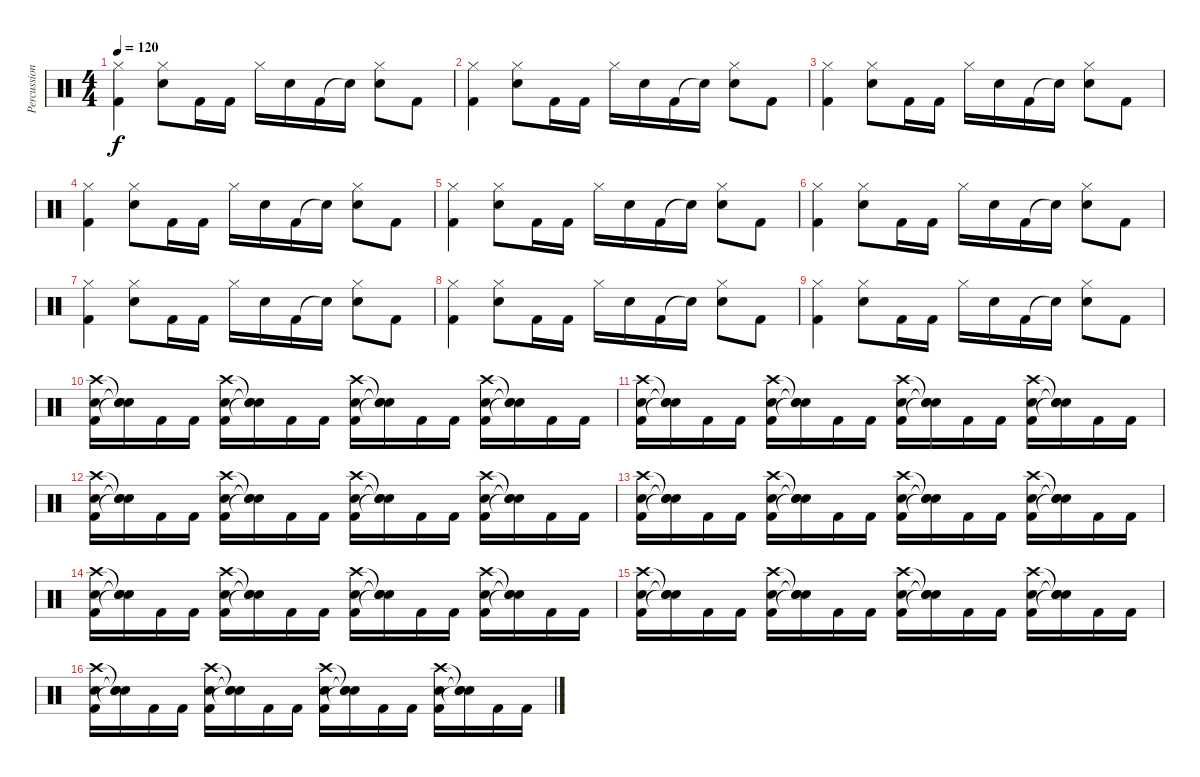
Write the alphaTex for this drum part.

\track ("Percussions" "Percussion") {instrument percussion}
\staff {score}
\articulation defaults
\ts (4 4)
\tempo 120
\clef neutral
\ks c
("Kick (hit) 2" "Hi-Hat (closed)").4{dy f} ("Electric Snare (hit)" "Hi-Hat (closed)").8 "Kick (hit) 2".16 "Kick (hit) 2".16 "Hi-Hat (closed)".16 "Electric Snare (hit)".16 "Kick (hit) 2".16 "Snare (hit)"{t}.16 ("Electric Snare (hit)" "Hi-Hat (closed)").8 "Kick (hit) 2".8 |
("Kick (hit) 2" "Hi-Hat (closed)").4 ("Electric Snare (hit)" "Hi-Hat (closed)").8 "Kick (hit) 2".16 "Kick (hit) 2".16 "Hi-Hat (closed)".16 "Electric Snare (hit)".16 "Kick (hit) 2".16 "Snare (hit)"{t}.16 ("Electric Snare (hit)" "Hi-Hat (closed)").8 "Kick (hit) 2".8 |
("Kick (hit) 2" "Hi-Hat (closed)").4 ("Electric Snare (hit)" "Hi-Hat (closed)").8 "Kick (hit) 2".16 "Kick (hit) 2".16 "Hi-Hat (closed)".16 "Electric Snare (hit)".16 "Kick (hit) 2".16 "Snare (hit)"{t}.16 ("Electric Snare (hit)" "Hi-Hat (closed)").8 "Kick (hit) 2".8 |
("Kick (hit) 2" "Hi-Hat (closed)").4 ("Electric Snare (hit)" "Hi-Hat (closed)").8 "Kick (hit) 2".16 "Kick (hit) 2".16 "Hi-Hat (closed)".16 "Electric Snare (hit)".16 "Kick (hit) 2".16 "Snare (hit)"{t}.16 ("Electric Snare (hit)" "Hi-Hat (closed)").8 "Kick (hit) 2".8 |
("Kick (hit) 2" "Hi-Hat (closed)").4 ("Electric Snare (hit)" "Hi-Hat (closed)").8 "Kick (hit) 2".16 "Kick (hit) 2".16 "Hi-Hat (closed)".16 "Electric Snare (hit)".16 "Kick (hit) 2".16 "Snare (hit)"{t}.16 ("Electric Snare (hit)" "Hi-Hat (closed)").8 "Kick (hit) 2".8 |
("Kick (hit) 2" "Hi-Hat (closed)").4 ("Electric Snare (hit)" "Hi-Hat (closed)").8 "Kick (hit) 2".16 "Kick (hit) 2".16 "Hi-Hat (closed)".16 "Electric Snare (hit)".16 "Kick (hit) 2".16 "Snare (hit)"{t}.16 ("Electric Snare (hit)" "Hi-Hat (closed)").8 "Kick (hit) 2".8 |
("Kick (hit) 2" "Hi-Hat (closed)").4 ("Electric Snare (hit)" "Hi-Hat (closed)").8 "Kick (hit) 2".16 "Kick (hit) 2".16 "Hi-Hat (closed)".16 "Electric Snare (hit)".16 "Kick (hit) 2".16 "Snare (hit)"{t}.16 ("Electric Snare (hit)" "Hi-Hat (closed)").8 "Kick (hit) 2".8 |
("Kick (hit) 2" "Hi-Hat (closed)").4 ("Electric Snare (hit)" "Hi-Hat (closed)").8 "Kick (hit) 2".16 "Kick (hit) 2".16 "Hi-Hat (closed)".16 "Electric Snare (hit)".16 "Kick (hit) 2".16 "Snare (hit)"{t}.16 ("Electric Snare (hit)" "Hi-Hat (closed)").8 "Kick (hit) 2".8 |
("Kick (hit) 2" "Hi-Hat (closed)").4 ("Electric Snare (hit)" "Hi-Hat (closed)").8 "Kick (hit) 2".16 "Kick (hit) 2".16 "Hi-Hat (closed)".16 "Electric Snare (hit)".16 "Kick (hit) 2".16 "Snare (hit)"{t}.16 ("Electric Snare (hit)" "Hi-Hat (closed)").8 "Kick (hit) 2".8 |
("Kick (hit) 2" "Electric Snare (hit)" "Crash high (hit)").16 ("Snare (hit)"{t} "Snare (hit)"{t} "Snare (hit)"{t}).16 "Kick (hit) 2".16 "Kick (hit) 2".16 ("Kick (hit) 2" "Electric Snare (hit)" "Crash high (hit)").16 ("Snare (hit)"{t} "Snare (hit)"{t} "Snare (hit)"{t}).16 "Kick (hit) 2".16 "Kick (hit) 2".16 ("Kick (hit) 2" "Electric Snare (hit)" "Crash high (hit)").16 ("Snare (hit)"{t} "Snare (hit)"{t} "Snare (hit)"{t}).16 "Kick (hit) 2".16 "Kick (hit) 2".16 ("Kick (hit) 2" "Electric Snare (hit)" "Crash high (hit)").16 ("Snare (hit)"{t} "Snare (hit)"{t} "Snare (hit)"{t}).16 "Kick (hit) 2".16 "Kick (hit) 2".16 |
("Kick (hit) 2" "Electric Snare (hit)" "Crash high (hit)").16 ("Snare (hit)"{t} "Snare (hit)"{t} "Snare (hit)"{t}).16 "Kick (hit) 2".16 "Kick (hit) 2".16 ("Kick (hit) 2" "Electric Snare (hit)" "Crash high (hit)").16 ("Snare (hit)"{t} "Snare (hit)"{t} "Snare (hit)"{t}).16 "Kick (hit) 2".16 "Kick (hit) 2".16 ("Kick (hit) 2" "Electric Snare (hit)" "Crash high (hit)").16 ("Snare (hit)"{t} "Snare (hit)"{t} "Snare (hit)"{t}).16 "Kick (hit) 2".16 "Kick (hit) 2".16 ("Kick (hit) 2" "Electric Snare (hit)" "Crash high (hit)").16 ("Snare (hit)"{t} "Snare (hit)"{t} "Snare (hit)"{t}).16 "Kick (hit) 2".16 "Kick (hit) 2".16 |
("Kick (hit) 2" "Electric Snare (hit)" "Crash high (hit)").16 ("Snare (hit)"{t} "Snare (hit)"{t} "Snare (hit)"{t}).16 "Kick (hit) 2".16 "Kick (hit) 2".16 ("Kick (hit) 2" "Electric Snare (hit)" "Crash high (hit)").16 ("Snare (hit)"{t} "Snare (hit)"{t} "Snare (hit)"{t}).16 "Kick (hit) 2".16 "Kick (hit) 2".16 ("Kick (hit) 2" "Electric Snare (hit)" "Crash high (hit)").16 ("Snare (hit)"{t} "Snare (hit)"{t} "Snare (hit)"{t}).16 "Kick (hit) 2".16 "Kick (hit) 2".16 ("Kick (hit) 2" "Electric Snare (hit)" "Crash high (hit)").16 ("Snare (hit)"{t} "Snare (hit)"{t} "Snare (hit)"{t}).16 "Kick (hit) 2".16 "Kick (hit) 2".16 |
("Kick (hit) 2" "Electric Snare (hit)" "Crash high (hit)").16 ("Snare (hit)"{t} "Snare (hit)"{t} "Snare (hit)"{t}).16 "Kick (hit) 2".16 "Kick (hit) 2".16 ("Kick (hit) 2" "Electric Snare (hit)" "Crash high (hit)").16 ("Snare (hit)"{t} "Snare (hit)"{t} "Snare (hit)"{t}).16 "Kick (hit) 2".16 "Kick (hit) 2".16 ("Kick (hit) 2" "Electric Snare (hit)" "Crash high (hit)").16 ("Snare (hit)"{t} "Snare (hit)"{t} "Snare (hit)"{t}).16 "Kick (hit) 2".16 "Kick (hit) 2".16 ("Kick (hit) 2" "Electric Snare (hit)" "Crash high (hit)").16 ("Snare (hit)"{t} "Snare (hit)"{t} "Snare (hit)"{t}).16 "Kick (hit) 2".16 "Kick (hit) 2".16 |
("Kick (hit) 2" "Electric Snare (hit)" "Crash high (hit)").16 ("Snare (hit)"{t} "Snare (hit)"{t} "Snare (hit)"{t}).16 "Kick (hit) 2".16 "Kick (hit) 2".16 ("Kick (hit) 2" "Electric Snare (hit)" "Crash high (hit)").16 ("Snare (hit)"{t} "Snare (hit)"{t} "Snare (hit)"{t}).16 "Kick (hit) 2".16 "Kick (hit) 2".16 ("Kick (hit) 2" "Electric Snare (hit)" "Crash high (hit)").16 ("Snare (hit)"{t} "Snare (hit)"{t} "Snare (hit)"{t}).16 "Kick (hit) 2".16 "Kick (hit) 2".16 ("Kick (hit) 2" "Electric Snare (hit)" "Crash high (hit)").16 ("Snare (hit)"{t} "Snare (hit)"{t} "Snare (hit)"{t}).16 "Kick (hit) 2".16 "Kick (hit) 2".16 |
("Kick (hit) 2" "Electric Snare (hit)" "Crash high (hit)").16 ("Snare (hit)"{t} "Snare (hit)"{t} "Snare (hit)"{t}).16 "Kick (hit) 2".16 "Kick (hit) 2".16 ("Kick (hit) 2" "Electric Snare (hit)" "Crash high (hit)").16 ("Snare (hit)"{t} "Snare (hit)"{t} "Snare (hit)"{t}).16 "Kick (hit) 2".16 "Kick (hit) 2".16 ("Kick (hit) 2" "Electric Snare (hit)" "Crash high (hit)").16 ("Snare (hit)"{t} "Snare (hit)"{t} "Snare (hit)"{t}).16 "Kick (hit) 2".16 "Kick (hit) 2".16 ("Kick (hit) 2" "Electric Snare (hit)" "Crash high (hit)").16 ("Snare (hit)"{t} "Snare (hit)"{t} "Snare (hit)"{t}).16 "Kick (hit) 2".16 "Kick (hit) 2".16 |
("Kick (hit) 2" "Electric Snare (hit)" "Crash high (hit)").16 ("Snare (hit)"{t} "Snare (hit)"{t} "Snare (hit)"{t}).16 "Kick (hit) 2".16 "Kick (hit) 2".16 ("Kick (hit) 2" "Electric Snare (hit)" "Crash high (hit)").16 ("Snare (hit)"{t} "Snare (hit)"{t} "Snare (hit)"{t}).16 "Kick (hit) 2".16 "Kick (hit) 2".16 ("Kick (hit) 2" "Electric Snare (hit)" "Crash high (hit)").16 ("Snare (hit)"{t} "Snare (hit)"{t} "Snare (hit)"{t}).16 "Kick (hit) 2".16 "Kick (hit) 2".16 ("Kick (hit) 2" "Electric Snare (hit)" "Crash high (hit)").16 ("Snare (hit)"{t} "Snare (hit)"{t} "Snare (hit)"{t}).16 "Kick (hit) 2".16 "Kick (hit) 2".16
